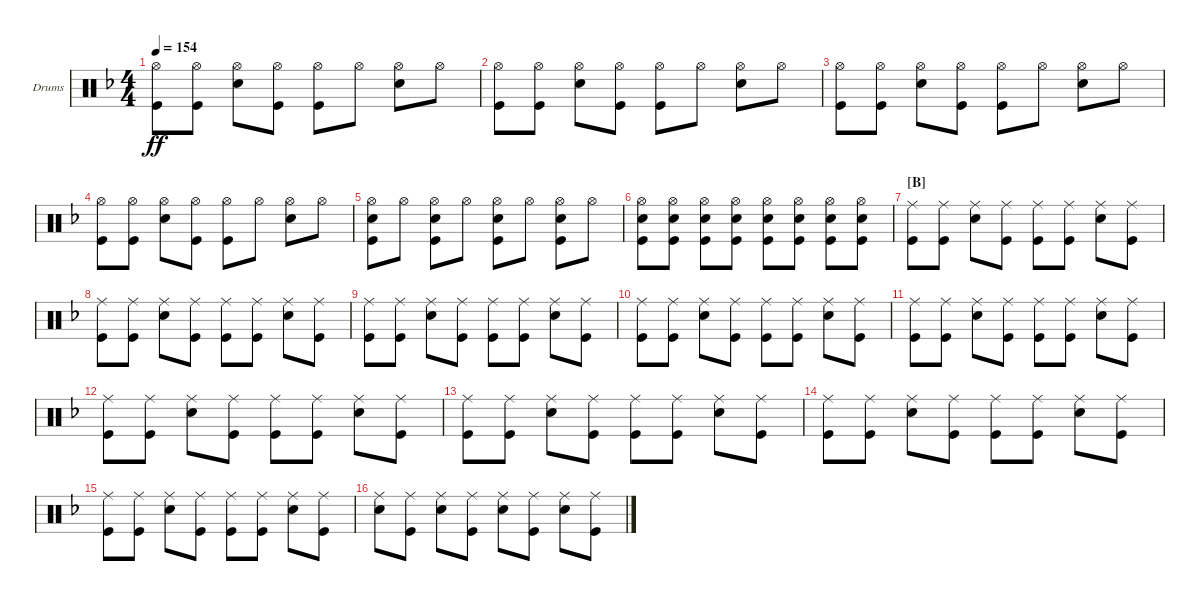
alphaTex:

\bracketExtendMode groupsimilarinstruments
\firstSystemTrackNameOrientation horizontal
\otherSystemsTrackNameOrientation horizontal
\track ("Fabrizio Moretti" "Drums") {instrument percussion}
\staff {score}
\articulation defaults
\ts (4 4)
\tempo 154
\clef neutral
\ks f
("Hi-Hat (open)" "Kick (hit)").8{dy ff} ("Hi-Hat (open)" "Kick (hit)").8 ("Hi-Hat (open)" "Snare (hit) 2").8 ("Hi-Hat (open)" "Kick (hit)").8 ("Hi-Hat (open)" "Kick (hit)").8 "Hi-Hat (open)".8 ("Hi-Hat (open)" "Snare (hit) 2").8 "Hi-Hat (open)".8 |
("Hi-Hat (open)" "Kick (hit)").8 ("Hi-Hat (open)" "Kick (hit)").8 ("Hi-Hat (open)" "Snare (hit) 2").8 ("Hi-Hat (open)" "Kick (hit)").8 ("Hi-Hat (open)" "Kick (hit)").8 "Hi-Hat (open)".8 ("Hi-Hat (open)" "Snare (hit) 2").8 "Hi-Hat (open)".8 |
("Hi-Hat (open)" "Kick (hit)").8 ("Hi-Hat (open)" "Kick (hit)").8 ("Hi-Hat (open)" "Snare (hit) 2").8 ("Hi-Hat (open)" "Kick (hit)").8 ("Hi-Hat (open)" "Kick (hit)").8 "Hi-Hat (open)".8 ("Hi-Hat (open)" "Snare (hit) 2").8 "Hi-Hat (open)".8 |
("Hi-Hat (open)" "Kick (hit)").8 ("Hi-Hat (open)" "Kick (hit)").8 ("Hi-Hat (open)" "Snare (hit) 2").8 ("Hi-Hat (open)" "Kick (hit)").8 ("Hi-Hat (open)" "Kick (hit)").8 "Hi-Hat (open)".8 ("Hi-Hat (open)" "Snare (hit) 2").8 "Hi-Hat (open)".8 |
("Hi-Hat (open)" "Kick (hit)" "Snare (hit) 2").8 "Hi-Hat (open)".8 ("Hi-Hat (open)" "Kick (hit)" "Snare (hit) 2").8 "Hi-Hat (open)".8 ("Hi-Hat (open)" "Kick (hit)" "Snare (hit) 2").8 "Hi-Hat (open)".8 ("Hi-Hat (open)" "Kick (hit)" "Snare (hit) 2").8 "Hi-Hat (open)".8 |
("Hi-Hat (open)" "Kick (hit)" "Snare (hit) 2").8 ("Hi-Hat (open)" "Kick (hit)" "Snare (hit) 2").8 ("Hi-Hat (open)" "Kick (hit)" "Snare (hit) 2").8 ("Hi-Hat (open)" "Kick (hit)" "Snare (hit) 2").8 ("Hi-Hat (open)" "Kick (hit)" "Snare (hit) 2").8 ("Hi-Hat (open)" "Kick (hit)" "Snare (hit) 2").8 ("Hi-Hat (open)" "Kick (hit)" "Snare (hit) 2").8 ("Hi-Hat (open)" "Kick (hit)" "Snare (hit) 2").8 |
\section ("B" "")
("Ride (middle)" "Kick (hit)").8 ("Ride (middle)" "Kick (hit)").8 ("Ride (middle)" "Snare (hit) 2").8 ("Ride (middle)" "Kick (hit)").8 ("Ride (middle)" "Kick (hit)").8 ("Ride (middle)" "Kick (hit)").8 ("Ride (middle)" "Snare (hit) 2").8 ("Ride (middle)" "Kick (hit)").8 |
("Ride (middle)" "Kick (hit)").8 ("Ride (middle)" "Kick (hit)").8 ("Ride (middle)" "Snare (hit) 2").8 ("Ride (middle)" "Kick (hit)").8 ("Ride (middle)" "Kick (hit)").8 ("Ride (middle)" "Kick (hit)").8 ("Ride (middle)" "Snare (hit) 2").8 ("Ride (middle)" "Kick (hit)").8 |
("Ride (middle)" "Kick (hit)").8 ("Ride (middle)" "Kick (hit)").8 ("Ride (middle)" "Snare (hit) 2").8 ("Ride (middle)" "Kick (hit)").8 ("Ride (middle)" "Kick (hit)").8 ("Ride (middle)" "Kick (hit)").8 ("Ride (middle)" "Snare (hit) 2").8 ("Ride (middle)" "Kick (hit)").8 |
("Ride (middle)" "Kick (hit)").8 ("Ride (middle)" "Kick (hit)").8 ("Ride (middle)" "Snare (hit) 2").8 ("Ride (middle)" "Kick (hit)").8 ("Ride (middle)" "Kick (hit)").8 ("Ride (middle)" "Kick (hit)").8 ("Ride (middle)" "Snare (hit) 2").8 ("Ride (middle)" "Kick (hit)").8 |
("Ride (middle)" "Kick (hit)").8 ("Ride (middle)" "Kick (hit)").8 ("Ride (middle)" "Snare (hit) 2").8 ("Ride (middle)" "Kick (hit)").8 ("Ride (middle)" "Kick (hit)").8 ("Ride (middle)" "Kick (hit)").8 ("Ride (middle)" "Snare (hit) 2").8 ("Ride (middle)" "Kick (hit)").8 |
("Ride (middle)" "Kick (hit)").8 ("Ride (middle)" "Kick (hit)").8 ("Ride (middle)" "Snare (hit) 2").8 ("Ride (middle)" "Kick (hit)").8 ("Ride (middle)" "Kick (hit)").8 ("Ride (middle)" "Kick (hit)").8 ("Ride (middle)" "Snare (hit) 2").8 ("Ride (middle)" "Kick (hit)").8 |
("Ride (middle)" "Kick (hit)").8 ("Ride (middle)" "Kick (hit)").8 ("Ride (middle)" "Snare (hit) 2").8 ("Ride (middle)" "Kick (hit)").8 ("Ride (middle)" "Kick (hit)").8 ("Ride (middle)" "Kick (hit)").8 ("Ride (middle)" "Snare (hit) 2").8 ("Ride (middle)" "Kick (hit)").8 |
("Ride (middle)" "Kick (hit)").8 ("Ride (middle)" "Kick (hit)").8 ("Ride (middle)" "Snare (hit) 2").8 ("Ride (middle)" "Kick (hit)").8 ("Ride (middle)" "Kick (hit)").8 ("Ride (middle)" "Kick (hit)").8 ("Ride (middle)" "Snare (hit) 2").8 ("Ride (middle)" "Kick (hit)").8 |
("Ride (middle)" "Kick (hit)").8 ("Ride (middle)" "Kick (hit)").8 ("Ride (middle)" "Snare (hit) 2").8 ("Ride (middle)" "Kick (hit)").8 ("Ride (middle)" "Kick (hit)").8 ("Ride (middle)" "Kick (hit)").8 ("Ride (middle)" "Snare (hit) 2").8 ("Ride (middle)" "Kick (hit)").8 |
("Ride (middle)" "Snare (hit) 2").8 ("Ride (middle)" "Kick (hit)").8 ("Ride (middle)" "Snare (hit) 2").8 ("Ride (middle)" "Kick (hit)").8 ("Ride (middle)" "Snare (hit) 2").8 ("Ride (middle)" "Kick (hit)").8 ("Ride (middle)" "Snare (hit) 2").8 ("Ride (middle)" "Kick (hit)").8
